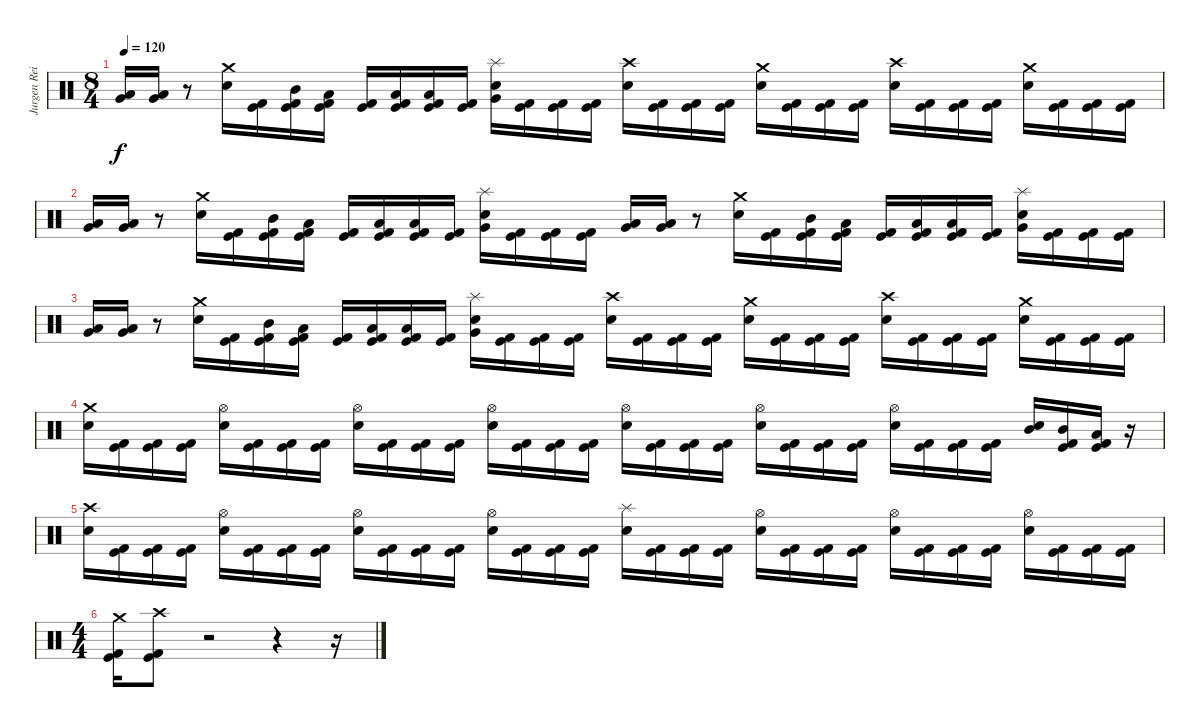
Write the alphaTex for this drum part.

\track ("Jurgen Reil" "Jurgen Rei") {instrument percussion}
\staff {score}
\articulation defaults
\ts (8 4)
\tempo 120
\clef neutral
\ks c
("Low Tom (hit)" "Very Low Tom (hit)").16{dy f} ("Low Tom (hit)" "Very Low Tom (hit)").16 r.8 ("Crash medium (hit)" "Electric Snare (hit)").16 ("Kick (hit)" "Kick (hit) 2").16 ("Mid Tom (hit)" "Kick (hit)" "Kick (hit) 2").16 ("Low Tom (hit)" "Kick (hit)" "Kick (hit) 2").16 ("Kick (hit)" "Kick (hit) 2").16 ("Low Tom (hit)" "Kick (hit)" "Kick (hit) 2").16 ("Low Tom (hit)" "Kick (hit)" "Kick (hit) 2").16 ("Kick (hit)" "Kick (hit) 2").16 ("Splash (hit)" "Very Low Tom (hit)" "Electric Snare (hit)").16 ("Kick (hit)" "Kick (hit) 2").16 ("Kick (hit)" "Kick (hit) 2").16 ("Kick (hit)" "Kick (hit) 2").16 ("Crash high (hit)" "Electric Snare (hit)").16 ("Kick (hit)" "Kick (hit) 2").16 ("Kick (hit)" "Kick (hit) 2").16 ("Kick (hit)" "Kick (hit) 2").16 ("Crash medium (hit)" "Electric Snare (hit)").16 ("Kick (hit)" "Kick (hit) 2").16 ("Kick (hit)" "Kick (hit) 2").16 ("Kick (hit)" "Kick (hit) 2").16 ("Crash high (hit)" "Electric Snare (hit)").16 ("Kick (hit)" "Kick (hit) 2").16 ("Kick (hit)" "Kick (hit) 2").16 ("Kick (hit)" "Kick (hit) 2").16 ("Crash medium (hit)" "Electric Snare (hit)").16 ("Kick (hit)" "Kick (hit) 2").16 ("Kick (hit)" "Kick (hit) 2").16 ("Kick (hit)" "Kick (hit) 2").16 |
("Low Tom (hit)" "Very Low Tom (hit)").16 ("Low Tom (hit)" "Very Low Tom (hit)").16 r.8 ("Crash medium (hit)" "Electric Snare (hit)").16 ("Kick (hit)" "Kick (hit) 2").16 ("Mid Tom (hit)" "Kick (hit)" "Kick (hit) 2").16 ("Low Tom (hit)" "Kick (hit)" "Kick (hit) 2").16 ("Kick (hit)" "Kick (hit) 2").16 ("Low Tom (hit)" "Kick (hit)" "Kick (hit) 2").16 ("Low Tom (hit)" "Kick (hit)" "Kick (hit) 2").16 ("Kick (hit)" "Kick (hit) 2").16 ("Splash (hit)" "Very Low Tom (hit)" "Electric Snare (hit)").16 ("Kick (hit)" "Kick (hit) 2").16 ("Kick (hit)" "Kick (hit) 2").16 ("Kick (hit)" "Kick (hit) 2").16 ("Low Tom (hit)" "Very Low Tom (hit)").16 ("Low Tom (hit)" "Very Low Tom (hit)").16 r.8 ("Crash medium (hit)" "Electric Snare (hit)").16 ("Kick (hit)" "Kick (hit) 2").16 ("Mid Tom (hit)" "Kick (hit)" "Kick (hit) 2").16 ("Low Tom (hit)" "Kick (hit)" "Kick (hit) 2").16 ("Kick (hit)" "Kick (hit) 2").16 ("Low Tom (hit)" "Kick (hit)" "Kick (hit) 2").16 ("Low Tom (hit)" "Kick (hit)" "Kick (hit) 2").16 ("Kick (hit)" "Kick (hit) 2").16 ("Splash (hit)" "Very Low Tom (hit)" "Electric Snare (hit)").16 ("Kick (hit)" "Kick (hit) 2").16 ("Kick (hit)" "Kick (hit) 2").16 ("Kick (hit)" "Kick (hit) 2").16 |
("Low Tom (hit)" "Very Low Tom (hit)").16 ("Low Tom (hit)" "Very Low Tom (hit)").16 r.8 ("Crash medium (hit)" "Electric Snare (hit)").16 ("Kick (hit)" "Kick (hit) 2").16 ("Mid Tom (hit)" "Kick (hit)" "Kick (hit) 2").16 ("Low Tom (hit)" "Kick (hit)" "Kick (hit) 2").16 ("Kick (hit)" "Kick (hit) 2").16 ("Low Tom (hit)" "Kick (hit)" "Kick (hit) 2").16 ("Low Tom (hit)" "Kick (hit)" "Kick (hit) 2").16 ("Kick (hit)" "Kick (hit) 2").16 ("Splash (hit)" "Very Low Tom (hit)" "Electric Snare (hit)").16 ("Kick (hit)" "Kick (hit) 2").16 ("Kick (hit)" "Kick (hit) 2").16 ("Kick (hit)" "Kick (hit) 2").16 ("Crash high (hit)" "Electric Snare (hit)").16 ("Kick (hit)" "Kick (hit) 2").16 ("Kick (hit)" "Kick (hit) 2").16 ("Kick (hit)" "Kick (hit) 2").16 ("Crash medium (hit)" "Electric Snare (hit)").16 ("Kick (hit)" "Kick (hit) 2").16 ("Kick (hit)" "Kick (hit) 2").16 ("Kick (hit)" "Kick (hit) 2").16 ("Crash high (hit)" "Electric Snare (hit)").16 ("Kick (hit)" "Kick (hit) 2").16 ("Kick (hit)" "Kick (hit) 2").16 ("Kick (hit)" "Kick (hit) 2").16 ("Crash medium (hit)" "Electric Snare (hit)").16 ("Kick (hit)" "Kick (hit) 2").16 ("Kick (hit)" "Kick (hit) 2").16 ("Kick (hit)" "Kick (hit) 2").16 |
("Crash medium (hit)" "Electric Snare (hit)").16 ("Kick (hit)" "Kick (hit) 2").16 ("Kick (hit)" "Kick (hit) 2").16 ("Kick (hit)" "Kick (hit) 2").16 ("Hi-Hat (open)" "Electric Snare (hit)").16 ("Kick (hit)" "Kick (hit) 2").16 ("Kick (hit)" "Kick (hit) 2").16 ("Kick (hit)" "Kick (hit) 2").16 ("Hi-Hat (open)" "Electric Snare (hit)").16 ("Kick (hit)" "Kick (hit) 2").16 ("Kick (hit)" "Kick (hit) 2").16 ("Kick (hit)" "Kick (hit) 2").16 ("Hi-Hat (open)" "Electric Snare (hit)").16 ("Kick (hit)" "Kick (hit) 2").16 ("Kick (hit)" "Kick (hit) 2").16 ("Kick (hit)" "Kick (hit) 2").16 ("Hi-Hat (open)" "Electric Snare (hit)").16 ("Kick (hit)" "Kick (hit) 2").16 ("Kick (hit)" "Kick (hit) 2").16 ("Kick (hit)" "Kick (hit) 2").16 ("Hi-Hat (open)" "Electric Snare (hit)").16 ("Kick (hit)" "Kick (hit) 2").16 ("Kick (hit)" "Kick (hit) 2").16 ("Kick (hit)" "Kick (hit) 2").16 ("Hi-Hat (open)" "Electric Snare (hit)").16 ("Kick (hit)" "Kick (hit) 2").16 ("Kick (hit)" "Kick (hit) 2").16 ("Kick (hit)" "Kick (hit) 2").16 ("Mid Tom (hit)" "Electric Snare (hit)").16 ("Mid Tom (hit)" "Kick (hit)" "Kick (hit) 2").16 ("Low Tom (hit)" "Kick (hit)" "Kick (hit) 2").16 r.16 |
("Crash high (hit)" "Electric Snare (hit)").16 ("Kick (hit)" "Kick (hit) 2").16 ("Kick (hit)" "Kick (hit) 2").16 ("Kick (hit)" "Kick (hit) 2").16 ("Hi-Hat (open)" "Electric Snare (hit)").16 ("Kick (hit)" "Kick (hit) 2").16 ("Kick (hit)" "Kick (hit) 2").16 ("Kick (hit)" "Kick (hit) 2").16 ("Hi-Hat (open)" "Electric Snare (hit)").16 ("Kick (hit)" "Kick (hit) 2").16 ("Kick (hit)" "Kick (hit) 2").16 ("Kick (hit)" "Kick (hit) 2").16 ("Hi-Hat (open)" "Electric Snare (hit)").16 ("Kick (hit)" "Kick (hit) 2").16 ("Kick (hit)" "Kick (hit) 2").16 ("Kick (hit)" "Kick (hit) 2").16 ("Splash (hit)" "Electric Snare (hit)").16 ("Kick (hit)" "Kick (hit) 2").16 ("Kick (hit)" "Kick (hit) 2").16 ("Kick (hit)" "Kick (hit) 2").16 ("Hi-Hat (open)" "Electric Snare (hit)").16 ("Kick (hit)" "Kick (hit) 2").16 ("Kick (hit)" "Kick (hit) 2").16 ("Kick (hit)" "Kick (hit) 2").16 ("Hi-Hat (open)" "Electric Snare (hit)").16 ("Kick (hit)" "Kick (hit) 2").16 ("Kick (hit)" "Kick (hit) 2").16 ("Kick (hit)" "Kick (hit) 2").16 ("Hi-Hat (open)" "Electric Snare (hit)").16 ("Kick (hit)" "Kick (hit) 2").16 ("Kick (hit)" "Kick (hit) 2").16 ("Kick (hit)" "Kick (hit) 2").16 |
\ts (4 4)
("Crash medium (hit)" "Kick (hit)" "Kick (hit) 2").16 ("Crash high (hit)" "Kick (hit)" "Kick (hit) 2").8 r.2 r.4 r.16
